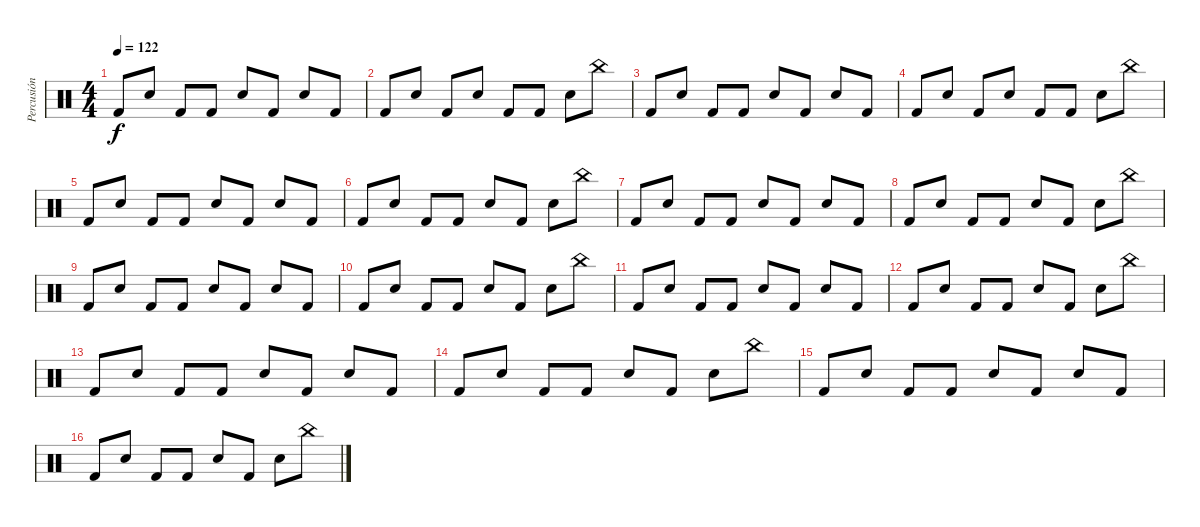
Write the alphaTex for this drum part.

\track ("Percusión" "Percusión") {instrument percussion}
\staff {score}
\articulation defaults
\ts (4 4)
\tempo 122
\clef neutral
\ks c "Kick (hit) 2".8{dy f} "Electric Snare (hit)".8 "Kick (hit) 2".8 "Kick (hit) 2".8 "Electric Snare (hit)".8 "Kick (hit) 2".8 "Electric Snare (hit)".8 "Kick (hit) 2".8
|
"Kick (hit) 2".8 "Electric Snare (hit)".8 "Kick (hit) 2".8 "Electric Snare (hit)".8 "Kick (hit) 2".8 "Kick (hit) 2".8 "Electric Snare (hit)".8 "China (hit)".8 |
"Kick (hit) 2".8 "Electric Snare (hit)".8 "Kick (hit) 2".8 "Kick (hit) 2".8 "Electric Snare (hit)".8 "Kick (hit) 2".8 "Electric Snare (hit)".8 "Kick (hit) 2".8 |
"Kick (hit) 2".8 "Electric Snare (hit)".8 "Kick (hit) 2".8 "Electric Snare (hit)".8 "Kick (hit) 2".8 "Kick (hit) 2".8 "Electric Snare (hit)".8 "China (hit)".8 |
"Kick (hit) 2".8 "Electric Snare (hit)".8 "Kick (hit) 2".8 "Kick (hit) 2".8 "Electric Snare (hit)".8 "Kick (hit) 2".8 "Electric Snare (hit)".8 "Kick (hit) 2".8 |
"Kick (hit) 2".8 "Electric Snare (hit)".8 "Kick (hit) 2".8 "Kick (hit) 2".8 "Electric Snare (hit)".8 "Kick (hit) 2".8 "Electric Snare (hit)".8 "China (hit)".8 |
"Kick (hit) 2".8 "Electric Snare (hit)".8 "Kick (hit) 2".8 "Kick (hit) 2".8 "Electric Snare (hit)".8 "Kick (hit) 2".8 "Electric Snare (hit)".8 "Kick (hit) 2".8 |
"Kick (hit) 2".8 "Electric Snare (hit)".8 "Kick (hit) 2".8 "Kick (hit) 2".8 "Electric Snare (hit)".8 "Kick (hit) 2".8 "Electric Snare (hit)".8 "China (hit)".8 |
"Kick (hit) 2".8 "Electric Snare (hit)".8 "Kick (hit) 2".8 "Kick (hit) 2".8 "Electric Snare (hit)".8 "Kick (hit) 2".8 "Electric Snare (hit)".8 "Kick (hit) 2".8 |
"Kick (hit) 2".8 "Electric Snare (hit)".8 "Kick (hit) 2".8 "Kick (hit) 2".8 "Electric Snare (hit)".8 "Kick (hit) 2".8 "Electric Snare (hit)".8 "China (hit)".8 |
"Kick (hit) 2".8 "Electric Snare (hit)".8 "Kick (hit) 2".8 "Kick (hit) 2".8 "Electric Snare (hit)".8 "Kick (hit) 2".8 "Electric Snare (hit)".8 "Kick (hit) 2".8 |
"Kick (hit) 2".8 "Electric Snare (hit)".8 "Kick (hit) 2".8 "Kick (hit) 2".8 "Electric Snare (hit)".8 "Kick (hit) 2".8 "Electric Snare (hit)".8 "China (hit)".8 |
"Kick (hit) 2".8 "Electric Snare (hit)".8 "Kick (hit) 2".8 "Kick (hit) 2".8 "Electric Snare (hit)".8 "Kick (hit) 2".8 "Electric Snare (hit)".8 "Kick (hit) 2".8 |
"Kick (hit) 2".8 "Electric Snare (hit)".8 "Kick (hit) 2".8 "Kick (hit) 2".8 "Electric Snare (hit)".8 "Kick (hit) 2".8 "Electric Snare (hit)".8 "China (hit)".8 |
"Kick (hit) 2".8 "Electric Snare (hit)".8 "Kick (hit) 2".8 "Kick (hit) 2".8 "Electric Snare (hit)".8 "Kick (hit) 2".8 "Electric Snare (hit)".8 "Kick (hit) 2".8 |
"Kick (hit) 2".8 "Electric Snare (hit)".8 "Kick (hit) 2".8 "Kick (hit) 2".8 "Electric Snare (hit)".8 "Kick (hit) 2".8 "Electric Snare (hit)".8 "China (hit)".8
